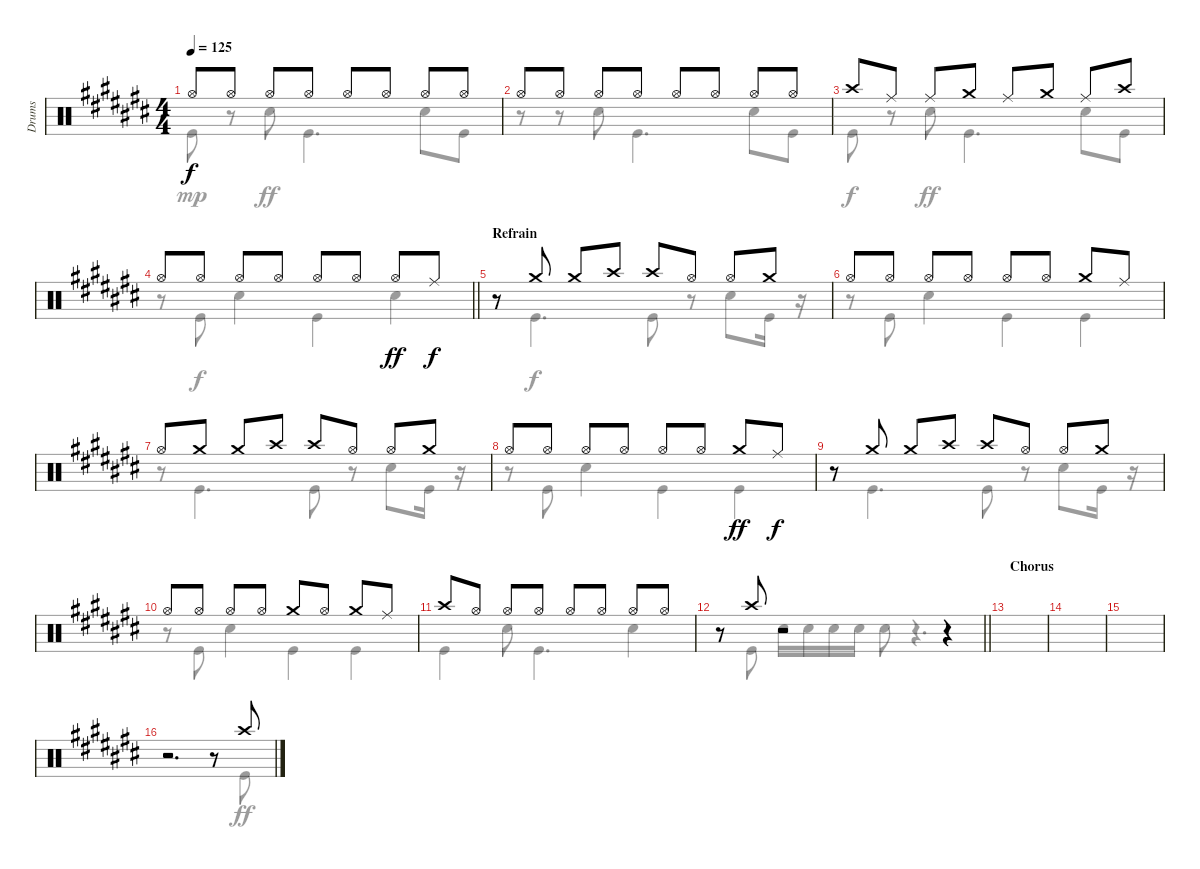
\track ("Drums" "Drums") {instrument percussion}
\staff {score}
\articulation defaults
\voice
\ts (4 4)
\tempo 125
\clef neutral
\ks c# "Hi-Hat (open)".8{dy f} "Hi-Hat (open)".8 "Hi-Hat (open)".8 "Hi-Hat (open)".8 "Hi-Hat (open)".8 "Hi-Hat (open)".8 "Hi-Hat (open)".8 "Hi-Hat (open)".8
|
"Hi-Hat (open)".8 "Hi-Hat (open)".8 "Hi-Hat (open)".8 "Hi-Hat (open)".8 "Hi-Hat (open)".8 "Hi-Hat (open)".8 "Hi-Hat (open)".8 "Hi-Hat (open)".8 |
"Crash high (hit)".8 "Ride (middle)".8 "Ride (middle)".8 "Crash medium (hit)".8 "Ride (middle)".8 "Crash medium (hit)".8 "Ride (middle)".8 "Crash high (hit)".8 |
\barLineRight lightlight "Hi-Hat (open)".8 "Hi-Hat (open)".8 "Hi-Hat (open)".8 "Hi-Hat (open)".8 "Hi-Hat (open)".8 "Hi-Hat (open)".8 "Hi-Hat (open)".8{dy ff} "Ride (middle)".8{dy f}
|
\section ("" "Refrain")
r.8 "Crash medium (hit)".8 "Crash medium (hit)".8 "Crash high (hit)".8 "Crash high (hit)".8 "Hi-Hat (open)".8 "Hi-Hat (open)".8 "Crash medium (hit)".8 |
"Hi-Hat (open)".8 "Hi-Hat (open)".8 "Hi-Hat (open)".8 "Hi-Hat (open)".8 "Hi-Hat (open)".8 "Hi-Hat (open)".8 "Crash medium (hit)".8 "Ride (middle)".8 |
"Hi-Hat (open)".8 "Crash medium (hit)".8 "Crash medium (hit)".8 "Crash high (hit)".8 "Crash high (hit)".8 "Hi-Hat (open)".8 "Hi-Hat (open)".8 "Crash medium (hit)".8 |
"Hi-Hat (open)".8 "Hi-Hat (open)".8 "Hi-Hat (open)".8 "Hi-Hat (open)".8 "Hi-Hat (open)".8 "Hi-Hat (open)".8 "Crash medium (hit)".8{dy ff} "Ride (middle)".8{dy f} |
r.8 "Crash medium (hit)".8 "Crash medium (hit)".8 "Crash high (hit)".8 "Crash high (hit)".8 "Hi-Hat (open)".8 "Hi-Hat (open)".8 "Crash medium (hit)".8 |
"Hi-Hat (open)".8 "Hi-Hat (open)".8 "Hi-Hat (open)".8 "Hi-Hat (open)".8 "Crash medium (hit)".8 "Hi-Hat (open)".8 "Crash medium (hit)".8 "Ride (middle)".8 |
"Crash high (hit)".8 "Hi-Hat (open)".8 "Hi-Hat (open)".8 "Hi-Hat (open)".8 "Hi-Hat (open)".8 "Hi-Hat (open)".8 "Hi-Hat (open)".8 "Hi-Hat (open)".8 |
\barLineRight lightlight
r.8 "Crash high (hit)".8 r.2 r.4 |
\section ("" "Chorus")
|
|
|
r.2{d} r.8 "Crash high (hit)".8
\voice
\clef neutral
\ottava regular
\simile none
\ks c# "Kick (hit)".8{dy mp}
r.8 "Snare (hit) 2".8{dy ff} "Kick (hit)".4{d} "Snare (hit) 2".8 "Kick (hit)".8 |
r.8 r.8 "Snare (hit) 2".8 "Kick (hit)".4{d} "Snare (hit) 2".8 "Kick (hit)".8 |
"Kick (hit)".8{dy f} r.8 "Snare (hit) 2".8{dy ff} "Kick (hit)".4{d} "Snare (hit) 2".8 "Kick (hit)".8 |
\barLineRight lightlight
r.8 "Kick (hit)".8{dy f} "Snare (hit) 2".4 "Kick (hit)".4 "Snare (hit) 2".4{dy ff} |
r.8 "Kick (hit)".4{d dy f} "Kick (hit)".8 r.8 "Snare (hit) 2".8 "Kick (hit)".16 r.16 |
r.8 "Kick (hit)".8 "Snare (hit) 2".4 "Kick (hit)".4 "Kick (hit)".4 |
r.8 "Kick (hit)".4{d} "Kick (hit)".8 r.8 "Snare (hit) 2".8 "Kick (hit)".16 r.16 |
r.8 "Kick (hit)".8 "Snare (hit) 2".4 "Kick (hit)".4 "Kick (hit)".4 |
r.8 "Kick (hit)".4{d} "Kick (hit)".8 r.8 "Snare (hit) 2".8 "Kick (hit)".16 r.16 |
r.8 "Kick (hit)".8 "Snare (hit) 2".4 "Kick (hit)".4 "Kick (hit)".4 |
"Kick (hit)".4 "Snare (hit) 2".8 "Kick (hit)".4{d} "Snare (hit) 2".4 |
\barLineRight lightlight
r.8 "Kick (hit)".8 "Snare (hit) 2".16 "Snare (hit) 2".16 "Snare (hit) 2".16 "Snare (hit) 2".16 "Snare (hit) 2".8 r.4{d} |
|
|
|
r.2{d} r.8 "Kick (hit)".8{dy ff}
